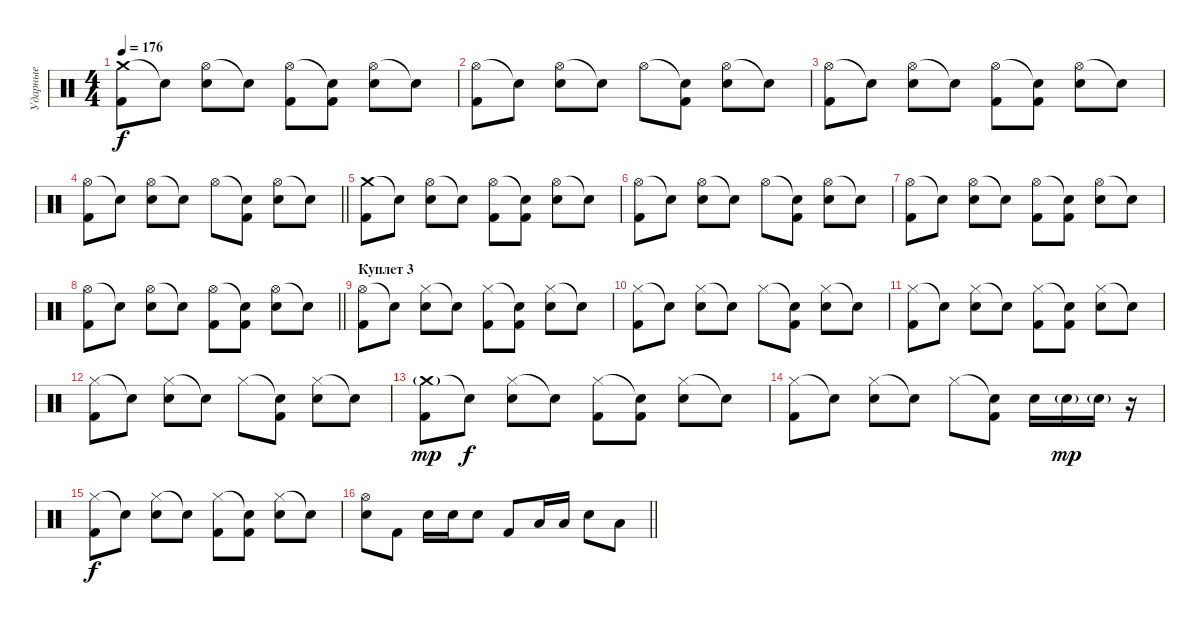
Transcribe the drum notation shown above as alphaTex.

\track ("Ударные" "Ударные") {instrument percussion}
\staff {score}
\articulation defaults
\ts (4 4)
\tempo 176
\clef neutral
\ks c
("Crash medium (hit)" "Kick (hit) 2").8{dy f} "Snare (hit)"{t}.8 ("Hi-Hat (open)" "Snare (hit) 2").8 "Snare (hit)"{t}.8 ("Hi-Hat (open)" "Kick (hit) 2").8 ("Snare (hit)"{t} "Kick (hit) 2").8 ("Hi-Hat (open)" "Snare (hit) 2").8 "Snare (hit)"{t}.8 |
("Hi-Hat (open)" "Kick (hit) 2").8 "Snare (hit)"{t}.8 ("Hi-Hat (open)" "Snare (hit) 2").8 "Snare (hit)"{t}.8 "Hi-Hat (open)".8 ("Snare (hit)"{t} "Kick (hit) 2").8 ("Hi-Hat (open)" "Snare (hit) 2").8 "Snare (hit)"{t}.8 |
("Hi-Hat (open)" "Kick (hit) 2").8 "Snare (hit)"{t}.8 ("Hi-Hat (open)" "Snare (hit) 2").8 "Snare (hit)"{t}.8 ("Hi-Hat (open)" "Kick (hit) 2").8 ("Snare (hit)"{t} "Kick (hit) 2").8 ("Hi-Hat (open)" "Snare (hit) 2").8 "Snare (hit)"{t}.8 |
\barLineRight lightlight
("Hi-Hat (open)" "Kick (hit) 2").8 "Snare (hit)"{t}.8 ("Hi-Hat (open)" "Snare (hit) 2").8 "Snare (hit)"{t}.8 "Hi-Hat (open)".8 ("Snare (hit)"{t} "Kick (hit) 2").8 ("Hi-Hat (open)" "Snare (hit) 2").8 "Snare (hit)"{t}.8 |
("Crash medium (hit)" "Kick (hit) 2").8 "Snare (hit)"{t}.8 ("Hi-Hat (open)" "Snare (hit) 2").8 "Snare (hit)"{t}.8 ("Hi-Hat (open)" "Kick (hit) 2").8 ("Snare (hit)"{t} "Kick (hit) 2").8 ("Hi-Hat (open)" "Snare (hit) 2").8 "Snare (hit)"{t}.8 |
("Hi-Hat (open)" "Kick (hit) 2").8 "Snare (hit)"{t}.8 ("Hi-Hat (open)" "Snare (hit) 2").8 "Snare (hit)"{t}.8 "Hi-Hat (open)".8 ("Snare (hit)"{t} "Kick (hit) 2").8 ("Hi-Hat (open)" "Snare (hit) 2").8 "Snare (hit)"{t}.8 |
("Hi-Hat (open)" "Kick (hit) 2").8 "Snare (hit)"{t}.8 ("Hi-Hat (open)" "Snare (hit) 2").8 "Snare (hit)"{t}.8 ("Hi-Hat (open)" "Kick (hit) 2").8 ("Snare (hit)"{t} "Kick (hit) 2").8 ("Hi-Hat (open)" "Snare (hit) 2").8 "Snare (hit)"{t}.8 |
\barLineRight lightlight
("Hi-Hat (open)" "Kick (hit) 2").8 "Snare (hit)"{t}.8 ("Hi-Hat (open)" "Snare (hit) 2").8 "Snare (hit)"{t}.8 ("Hi-Hat (open)" "Kick (hit) 2").8 ("Snare (hit)"{t} "Kick (hit) 2").8 ("Hi-Hat (open)" "Snare (hit) 2").8 "Snare (hit)"{t}.8 |
\section ("" "Куплет 3")
("Hi-Hat (open)" "Kick (hit) 2").8 "Snare (hit)"{t}.8 ("Hi-Hat (closed)" "Snare (hit) 2").8 "Snare (hit)"{t}.8 ("Hi-Hat (closed)" "Kick (hit) 2").8 ("Snare (hit)"{t} "Kick (hit) 2").8 ("Hi-Hat (closed)" "Snare (hit) 2").8 "Snare (hit)"{t}.8 |
("Hi-Hat (closed)" "Kick (hit) 2").8 "Snare (hit)"{t}.8 ("Hi-Hat (closed)" "Snare (hit) 2").8 "Snare (hit)"{t}.8 "Hi-Hat (closed)".8 ("Snare (hit)"{t} "Kick (hit) 2").8 ("Hi-Hat (closed)" "Snare (hit) 2").8 "Snare (hit)"{t}.8 |
("Hi-Hat (closed)" "Kick (hit) 2").8 "Snare (hit)"{t}.8 ("Hi-Hat (closed)" "Snare (hit) 2").8 "Snare (hit)"{t}.8 ("Hi-Hat (closed)" "Kick (hit) 2").8 ("Snare (hit)"{t} "Kick (hit) 2").8 ("Hi-Hat (closed)" "Snare (hit) 2").8 "Snare (hit)"{t}.8 |
("Hi-Hat (closed)" "Kick (hit) 2").8 "Snare (hit)"{t}.8 ("Hi-Hat (closed)" "Snare (hit) 2").8 "Snare (hit)"{t}.8 "Hi-Hat (closed)".8 ("Snare (hit)"{t} "Kick (hit) 2").8 ("Hi-Hat (closed)" "Snare (hit) 2").8 "Snare (hit)"{t}.8 |
("Crash medium (hit)"{g} "Kick (hit) 2").8{dy mp} "Snare (hit)"{t}.8{dy f} ("Hi-Hat (closed)" "Snare (hit) 2").8 "Snare (hit)"{t}.8 ("Hi-Hat (closed)" "Kick (hit) 2").8 ("Snare (hit)"{t} "Kick (hit) 2").8 ("Hi-Hat (closed)" "Snare (hit) 2").8 "Snare (hit)"{t}.8 |
("Hi-Hat (closed)" "Kick (hit) 2").8 "Snare (hit)"{t}.8 ("Hi-Hat (closed)" "Snare (hit) 2").8 "Snare (hit)"{t}.8 "Hi-Hat (closed)".8 ("Snare (hit)"{t} "Kick (hit) 2").8 "Snare (hit) 2".16 "Snare (hit) 2"{g}.16{dy mp} "Snare (hit) 2"{g}.16 r.16 |
("Hi-Hat (closed)" "Kick (hit) 2").8{dy f} "Snare (hit)"{t}.8 ("Hi-Hat (closed)" "Snare (hit) 2").8 "Snare (hit)"{t}.8 ("Hi-Hat (closed)" "Kick (hit) 2").8 ("Snare (hit)"{t} "Kick (hit) 2").8 ("Hi-Hat (closed)" "Snare (hit) 2").8 "Snare (hit)"{t}.8 |
\barLineRight lightlight
("Hi-Hat (open)" "Snare (hit) 2").8 "Kick (hit) 2".8 "Snare (hit) 2".16 "Snare (hit) 2".16 "Snare (hit) 2".8 "Kick (hit) 2".8 "Low Tom (hit)".16 "Low Tom (hit)".16 "Snare (hit) 2".8 "Low Floor Tom (hit)".8
